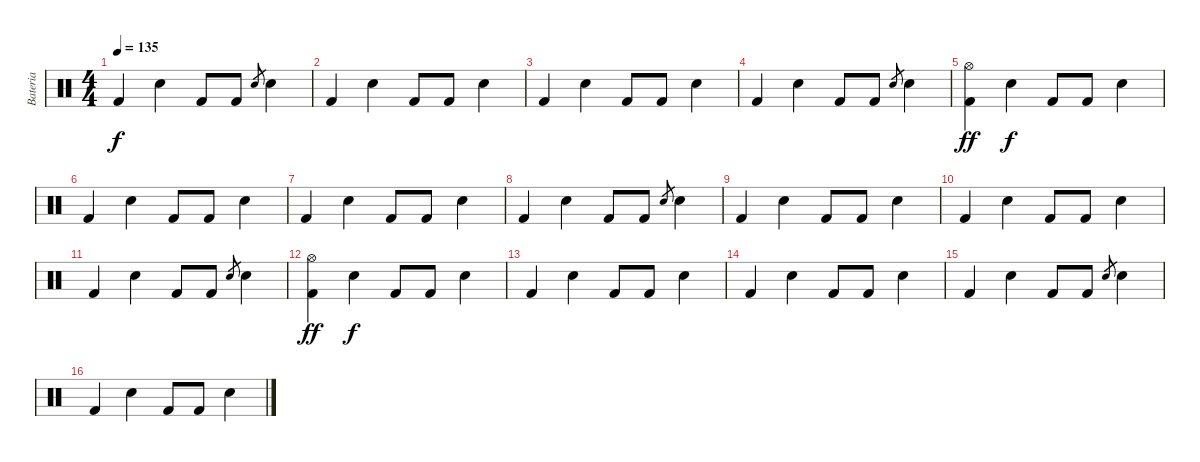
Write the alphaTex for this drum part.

\track ("Bateria" "Bateria") {instrument percussion}
\staff {score}
\articulation defaults
\ts (4 4)
\tempo 135
\clef neutral
\ks c "Kick (hit) 2".4{dy f} "Electric Snare (hit)".4 "Kick (hit) 2".8 "Kick (hit) 2".8 "Electric Snare (hit)".8{gr} "Electric Snare (hit)".4
|
"Kick (hit) 2".4 "Electric Snare (hit)".4 "Kick (hit) 2".8 "Kick (hit) 2".8 "Electric Snare (hit)".4 |
"Kick (hit) 2".4 "Electric Snare (hit)".4 "Kick (hit) 2".8 "Kick (hit) 2".8 "Electric Snare (hit)".4 |
"Kick (hit) 2".4 "Electric Snare (hit)".4 "Kick (hit) 2".8 "Kick (hit) 2".8 "Electric Snare (hit)".8{gr} "Electric Snare (hit)".4 |
("Hi-Hat (open)" "Kick (hit) 2").4{dy ff} "Electric Snare (hit)".4{dy f} "Kick (hit) 2".8 "Kick (hit) 2".8 "Electric Snare (hit)".4 |
"Kick (hit) 2".4 "Electric Snare (hit)".4 "Kick (hit) 2".8 "Kick (hit) 2".8 "Electric Snare (hit)".4 |
"Kick (hit) 2".4 "Electric Snare (hit)".4 "Kick (hit) 2".8 "Kick (hit) 2".8 "Electric Snare (hit)".4 |
"Kick (hit) 2".4 "Electric Snare (hit)".4 "Kick (hit) 2".8 "Kick (hit) 2".8 "Electric Snare (hit)".8{gr} "Electric Snare (hit)".4 |
"Kick (hit) 2".4 "Electric Snare (hit)".4 "Kick (hit) 2".8 "Kick (hit) 2".8 "Electric Snare (hit)".4 |
"Kick (hit) 2".4 "Electric Snare (hit)".4 "Kick (hit) 2".8 "Kick (hit) 2".8 "Electric Snare (hit)".4 |
"Kick (hit) 2".4 "Electric Snare (hit)".4 "Kick (hit) 2".8 "Kick (hit) 2".8 "Electric Snare (hit)".8{gr} "Electric Snare (hit)".4 |
("Hi-Hat (open)" "Kick (hit) 2").4{dy ff} "Electric Snare (hit)".4{dy f} "Kick (hit) 2".8 "Kick (hit) 2".8 "Electric Snare (hit)".4 |
"Kick (hit) 2".4 "Electric Snare (hit)".4 "Kick (hit) 2".8 "Kick (hit) 2".8 "Electric Snare (hit)".4 |
"Kick (hit) 2".4 "Electric Snare (hit)".4 "Kick (hit) 2".8 "Kick (hit) 2".8 "Electric Snare (hit)".4 |
"Kick (hit) 2".4 "Electric Snare (hit)".4 "Kick (hit) 2".8 "Kick (hit) 2".8 "Electric Snare (hit)".8{gr} "Electric Snare (hit)".4 |
"Kick (hit) 2".4 "Electric Snare (hit)".4 "Kick (hit) 2".8 "Kick (hit) 2".8 "Electric Snare (hit)".4
